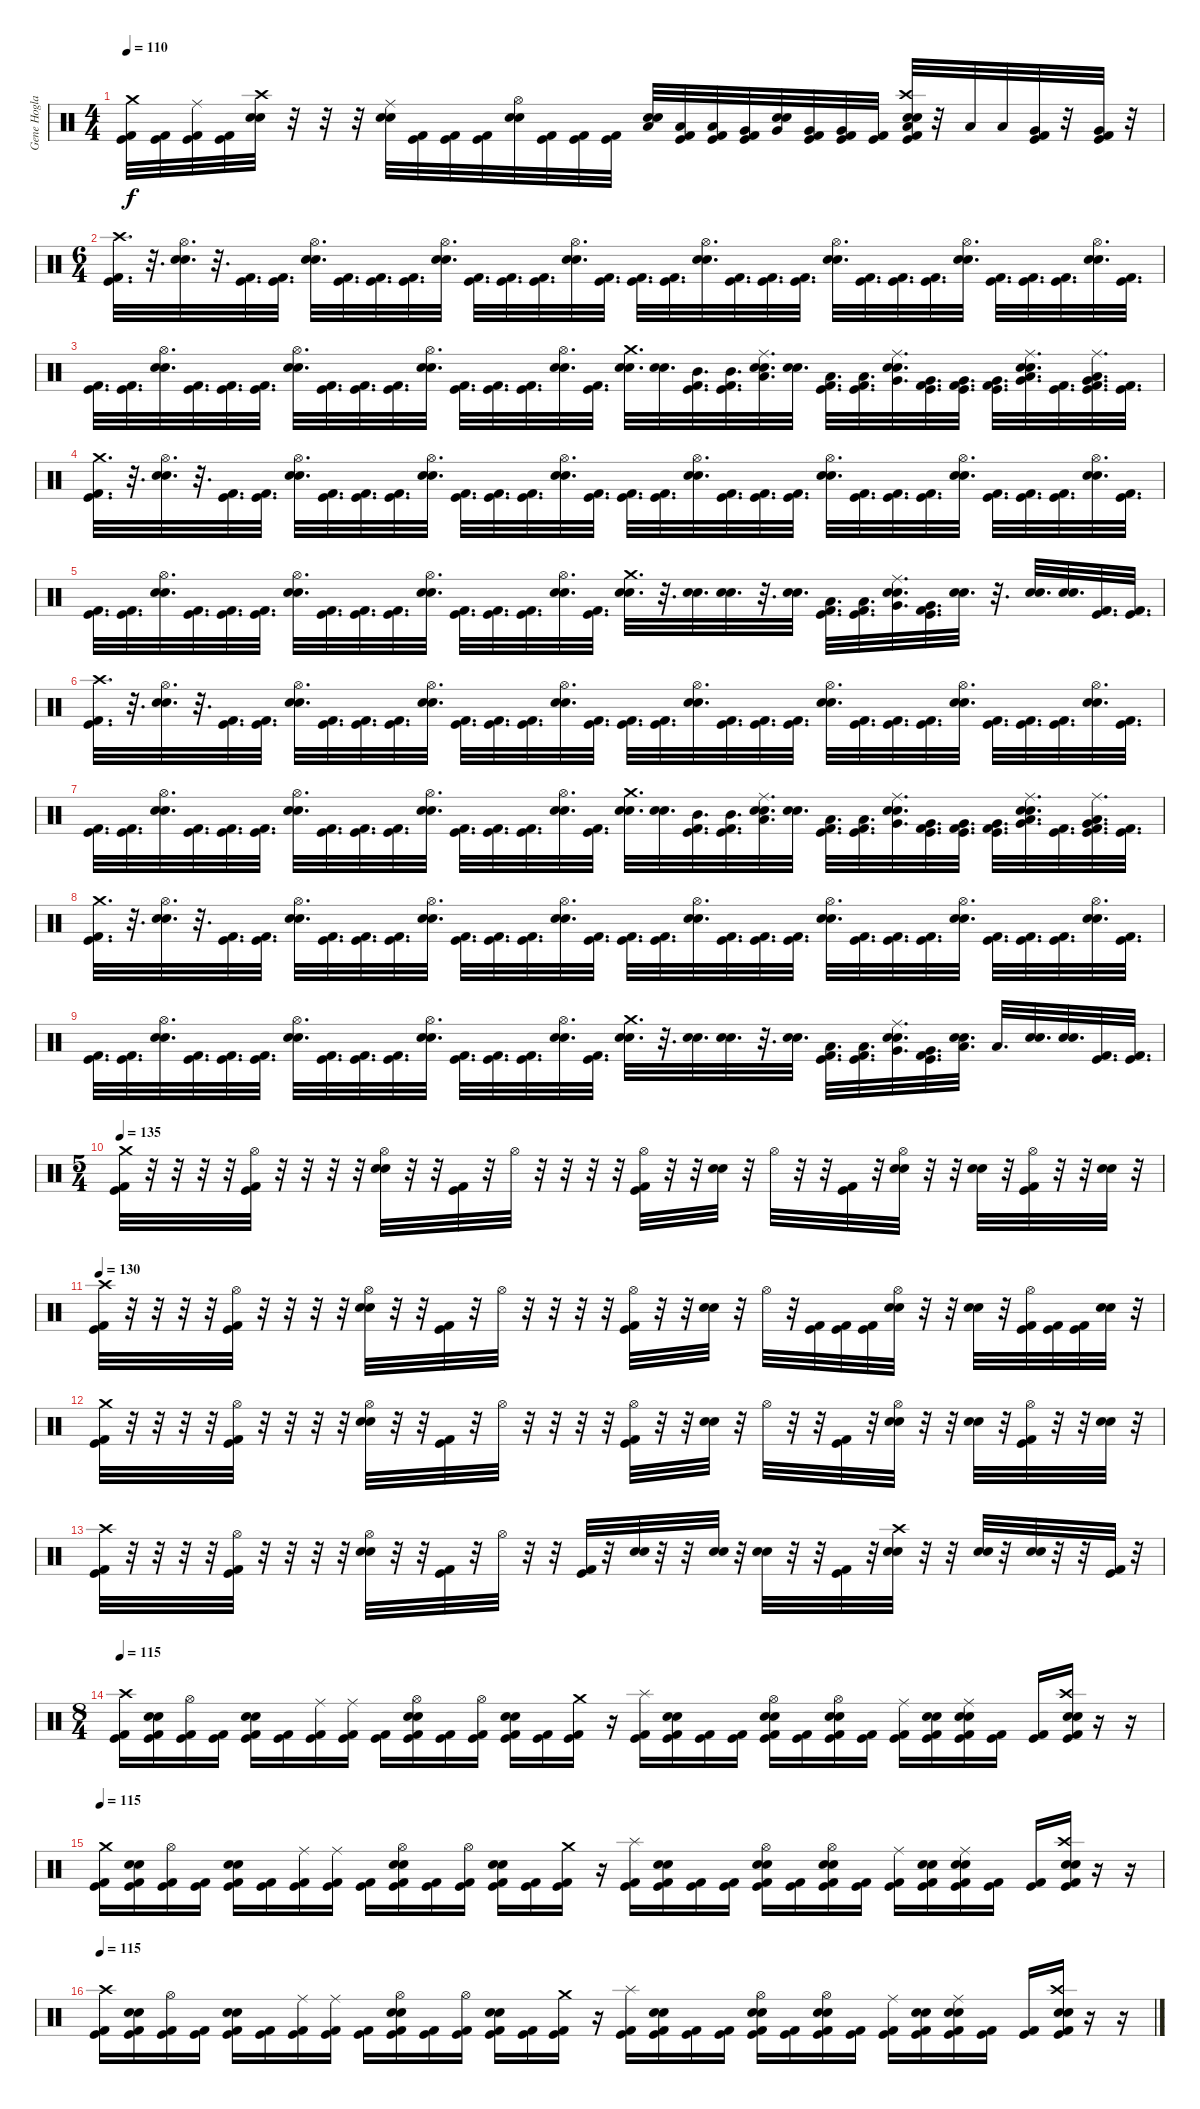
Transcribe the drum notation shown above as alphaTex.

\track ("Gene Hoglan" "Gene Hogla") {instrument percussion}
\staff {score}
\articulation defaults
\ts (4 4)
\tempo 110
\clef neutral
\ks c
("Crash medium (hit)" "Kick (hit) 2" "Kick (hit)").32{dy f} ("Kick (hit) 2" "Kick (hit)").32 ("Ride (middle)" "Kick (hit) 2" "Kick (hit)").32 ("Kick (hit) 2" "Kick (hit)").32 ("Crash high (hit)" "Snare (hit) 2" "Electric Snare (hit)").32 r.32 r.32 r.32 ("Ride (middle)" "Snare (hit) 2" "Electric Snare (hit)").32 ("Kick (hit) 2" "Kick (hit)").32 ("Kick (hit) 2" "Kick (hit)").32 ("Kick (hit) 2" "Kick (hit)").32 ("Hi-Hat (open)" "Snare (hit) 2" "Electric Snare (hit)").32 ("Kick (hit) 2" "Kick (hit)").32 ("Kick (hit) 2" "Kick (hit)").32 ("Kick (hit) 2" "Kick (hit)").32 ("Low Tom (hit)" "Snare (hit) 2" "Electric Snare (hit)").32 ("Low Tom (hit)" "Kick (hit) 2" "Kick (hit)").32 ("Low Tom (hit)" "Kick (hit) 2" "Kick (hit)").32 ("Very Low Tom (hit)" "Kick (hit) 2" "Kick (hit)").32 ("Very Low Tom (hit)" "Snare (hit) 2" "Electric Snare (hit)").32 ("Very Low Tom (hit)" "Kick (hit) 2" "Kick (hit)").32 ("Very Low Tom (hit)" "Kick (hit) 2" "Kick (hit)").32 ("Kick (hit) 2" "Kick (hit)").32 ("Kick (hit)" "Crash high (hit)" "Low Floor Tom (hit)" "Snare (hit) 2" "Electric Snare (hit)" "Kick (hit) 2").32 r.32 "Low Tom (hit)".32 "Low Tom (hit)".32 ("Very Low Tom (hit)" "Kick (hit)" "Kick (hit) 2").32 r.32 ("Very Low Tom (hit)" "Kick (hit)" "Kick (hit) 2").32 r.32 |
\ts (6 4)
("Crash high (hit)" "Kick (hit) 2" "Kick (hit)").32{d} r.32{d} ("Hi-Hat (open)" "Snare (hit) 2" "Electric Snare (hit)").32{d} r.32{d} ("Kick (hit) 2" "Kick (hit)").32{d} ("Kick (hit) 2" "Kick (hit)").32{d} ("Hi-Hat (open)" "Snare (hit) 2" "Electric Snare (hit)").32{d} ("Kick (hit) 2" "Kick (hit)").32{d} ("Kick (hit) 2" "Kick (hit)").32{d} ("Kick (hit) 2" "Kick (hit)").32{d} ("Hi-Hat (open)" "Snare (hit) 2" "Electric Snare (hit)").32{d} ("Kick (hit) 2" "Kick (hit)").32{d} ("Kick (hit) 2" "Kick (hit)").32{d} ("Kick (hit) 2" "Kick (hit)").32{d} ("Hi-Hat (open)" "Snare (hit) 2" "Electric Snare (hit)").32{d} ("Kick (hit) 2" "Kick (hit)").32{d} ("Kick (hit) 2" "Kick (hit)").32{d} ("Kick (hit) 2" "Kick (hit)").32{d} ("Hi-Hat (open)" "Snare (hit) 2" "Electric Snare (hit)").32{d} ("Kick (hit) 2" "Kick (hit)").32{d} ("Kick (hit) 2" "Kick (hit)").32{d} ("Kick (hit) 2" "Kick (hit)").32{d} ("Hi-Hat (open)" "Snare (hit) 2" "Electric Snare (hit)").32{d} ("Kick (hit) 2" "Kick (hit)").32{d} ("Kick (hit) 2" "Kick (hit)").32{d} ("Kick (hit) 2" "Kick (hit)").32{d} ("Hi-Hat (open)" "Snare (hit) 2" "Electric Snare (hit)").32{d} ("Kick (hit) 2" "Kick (hit)").32{d} ("Kick (hit) 2" "Kick (hit)").32{d} ("Kick (hit) 2" "Kick (hit)").32{d} ("Hi-Hat (open)" "Snare (hit) 2" "Electric Snare (hit)").32{d} ("Kick (hit) 2" "Kick (hit)").32{d} |
("Kick (hit) 2" "Kick (hit)").32{d} ("Kick (hit) 2" "Kick (hit)").32{d} ("Hi-Hat (open)" "Snare (hit) 2" "Electric Snare (hit)").32{d} ("Kick (hit) 2" "Kick (hit)").32{d} ("Kick (hit) 2" "Kick (hit)").32{d} ("Kick (hit) 2" "Kick (hit)").32{d} ("Hi-Hat (open)" "Snare (hit) 2" "Electric Snare (hit)").32{d} ("Kick (hit) 2" "Kick (hit)").32{d} ("Kick (hit) 2" "Kick (hit)").32{d} ("Kick (hit) 2" "Kick (hit)").32{d} ("Hi-Hat (open)" "Snare (hit) 2" "Electric Snare (hit)").32{d} ("Kick (hit) 2" "Kick (hit)").32{d} ("Kick (hit) 2" "Kick (hit)").32{d} ("Kick (hit) 2" "Kick (hit)").32{d} ("Hi-Hat (open)" "Snare (hit) 2" "Electric Snare (hit)").32{d} ("Kick (hit) 2" "Kick (hit)").32{d} ("Crash medium (hit)" "Snare (hit) 2" "Electric Snare (hit)").32{d} ("Snare (hit) 2" "Electric Snare (hit)").32{d} ("Mid Tom (hit)" "Kick (hit)" "Kick (hit) 2").32{d} ("Mid Tom (hit)" "Kick (hit) 2" "Kick (hit)").32{d} ("Ride (middle)" "Low Tom (hit)" "Snare (hit) 2" "Electric Snare (hit)").32{d} ("Snare (hit) 2" "Electric Snare (hit)").32{d} ("Low Tom (hit)" "Kick (hit) 2" "Kick (hit)").32{d} ("Low Tom (hit)" "Kick (hit) 2" "Kick (hit)").32{d} ("Ride (middle)" "Very Low Tom (hit)" "Snare (hit) 2" "Electric Snare (hit)").32{d} ("Very Low Tom (hit)" "Kick (hit) 2" "Kick (hit)").32{d} ("Very Low Tom (hit)" "Kick (hit) 2" "Kick (hit)").32{d} ("Very Low Tom (hit)" "Kick (hit) 2" "Kick (hit)").32{d} ("Ride (middle)" "Very Low Tom (hit)" "Low Floor Tom (hit)" "Snare (hit) 2" "Electric Snare (hit)").32{d} ("Kick (hit) 2" "Kick (hit)").32{d} ("Ride (middle)" "Very Low Tom (hit)" "Low Floor Tom (hit)" "Kick (hit) 2" "Kick (hit)").32{d} ("Kick (hit) 2" "Kick (hit)").32{d} |
("Crash medium (hit)" "Kick (hit) 2" "Kick (hit)").32{d} r.32{d} ("Hi-Hat (open)" "Snare (hit) 2" "Electric Snare (hit)").32{d} r.32{d} ("Kick (hit) 2" "Kick (hit)").32{d} ("Kick (hit) 2" "Kick (hit)").32{d} ("Hi-Hat (open)" "Snare (hit) 2" "Electric Snare (hit)").32{d} ("Kick (hit) 2" "Kick (hit)").32{d} ("Kick (hit) 2" "Kick (hit)").32{d} ("Kick (hit) 2" "Kick (hit)").32{d} ("Hi-Hat (open)" "Snare (hit) 2" "Electric Snare (hit)").32{d} ("Kick (hit) 2" "Kick (hit)").32{d} ("Kick (hit) 2" "Kick (hit)").32{d} ("Kick (hit) 2" "Kick (hit)").32{d} ("Hi-Hat (open)" "Snare (hit) 2" "Electric Snare (hit)").32{d} ("Kick (hit) 2" "Kick (hit)").32{d} ("Kick (hit) 2" "Kick (hit)").32{d} ("Kick (hit) 2" "Kick (hit)").32{d} ("Hi-Hat (open)" "Snare (hit) 2" "Electric Snare (hit)").32{d} ("Kick (hit) 2" "Kick (hit)").32{d} ("Kick (hit) 2" "Kick (hit)").32{d} ("Kick (hit) 2" "Kick (hit)").32{d} ("Hi-Hat (open)" "Snare (hit) 2" "Electric Snare (hit)").32{d} ("Kick (hit) 2" "Kick (hit)").32{d} ("Kick (hit) 2" "Kick (hit)").32{d} ("Kick (hit) 2" "Kick (hit)").32{d} ("Hi-Hat (open)" "Snare (hit) 2" "Electric Snare (hit)").32{d} ("Kick (hit) 2" "Kick (hit)").32{d} ("Kick (hit) 2" "Kick (hit)").32{d} ("Kick (hit) 2" "Kick (hit)").32{d} ("Hi-Hat (open)" "Snare (hit) 2" "Electric Snare (hit)").32{d} ("Kick (hit) 2" "Kick (hit)").32{d} |
("Kick (hit) 2" "Kick (hit)").32{d} ("Kick (hit) 2" "Kick (hit)").32{d} ("Hi-Hat (open)" "Snare (hit) 2" "Electric Snare (hit)").32{d} ("Kick (hit) 2" "Kick (hit)").32{d} ("Kick (hit) 2" "Kick (hit)").32{d} ("Kick (hit) 2" "Kick (hit)").32{d} ("Hi-Hat (open)" "Snare (hit) 2" "Electric Snare (hit)").32{d} ("Kick (hit) 2" "Kick (hit)").32{d} ("Kick (hit) 2" "Kick (hit)").32{d} ("Kick (hit) 2" "Kick (hit)").32{d} ("Hi-Hat (open)" "Snare (hit) 2" "Electric Snare (hit)").32{d} ("Kick (hit) 2" "Kick (hit)").32{d} ("Kick (hit) 2" "Kick (hit)").32{d} ("Kick (hit) 2" "Kick (hit)").32{d} ("Hi-Hat (open)" "Snare (hit) 2" "Electric Snare (hit)").32{d} ("Kick (hit) 2" "Kick (hit)").32{d} ("Crash medium (hit)" "Snare (hit) 2" "Electric Snare (hit)").32{d} r.32{d} ("Snare (hit) 2" "Electric Snare (hit)").32{d} ("Snare (hit) 2" "Electric Snare (hit)").32{d} r.32{d} ("Snare (hit) 2" "Electric Snare (hit)").32{d} ("Low Tom (hit)" "Kick (hit) 2" "Kick (hit)").32{d} ("Low Tom (hit)" "Kick (hit) 2" "Kick (hit)").32{d} ("Ride (middle)" "Very Low Tom (hit)" "Snare (hit) 2" "Electric Snare (hit)").32{d} ("Very Low Tom (hit)" "Kick (hit) 2" "Kick (hit)").32{d} ("Snare (hit) 2" "Electric Snare (hit)").32{d} r.32{d} ("Snare (hit) 2" "Electric Snare (hit)").32{d} ("Snare (hit) 2" "Electric Snare (hit)").32{d} ("Kick (hit) 2" "Kick (hit)").32{d} ("Kick (hit) 2" "Kick (hit)").32{d} |
("Crash high (hit)" "Kick (hit) 2" "Kick (hit)").32{d} r.32{d} ("Hi-Hat (open)" "Snare (hit) 2" "Electric Snare (hit)").32{d} r.32{d} ("Kick (hit) 2" "Kick (hit)").32{d} ("Kick (hit) 2" "Kick (hit)").32{d} ("Hi-Hat (open)" "Snare (hit) 2" "Electric Snare (hit)").32{d} ("Kick (hit) 2" "Kick (hit)").32{d} ("Kick (hit) 2" "Kick (hit)").32{d} ("Kick (hit) 2" "Kick (hit)").32{d} ("Hi-Hat (open)" "Snare (hit) 2" "Electric Snare (hit)").32{d} ("Kick (hit) 2" "Kick (hit)").32{d} ("Kick (hit) 2" "Kick (hit)").32{d} ("Kick (hit) 2" "Kick (hit)").32{d} ("Hi-Hat (open)" "Snare (hit) 2" "Electric Snare (hit)").32{d} ("Kick (hit) 2" "Kick (hit)").32{d} ("Kick (hit) 2" "Kick (hit)").32{d} ("Kick (hit) 2" "Kick (hit)").32{d} ("Hi-Hat (open)" "Snare (hit) 2" "Electric Snare (hit)").32{d} ("Kick (hit) 2" "Kick (hit)").32{d} ("Kick (hit) 2" "Kick (hit)").32{d} ("Kick (hit) 2" "Kick (hit)").32{d} ("Hi-Hat (open)" "Snare (hit) 2" "Electric Snare (hit)").32{d} ("Kick (hit) 2" "Kick (hit)").32{d} ("Kick (hit) 2" "Kick (hit)").32{d} ("Kick (hit) 2" "Kick (hit)").32{d} ("Hi-Hat (open)" "Snare (hit) 2" "Electric Snare (hit)").32{d} ("Kick (hit) 2" "Kick (hit)").32{d} ("Kick (hit) 2" "Kick (hit)").32{d} ("Kick (hit) 2" "Kick (hit)").32{d} ("Hi-Hat (open)" "Snare (hit) 2" "Electric Snare (hit)").32{d} ("Kick (hit) 2" "Kick (hit)").32{d} |
("Kick (hit) 2" "Kick (hit)").32{d} ("Kick (hit) 2" "Kick (hit)").32{d} ("Hi-Hat (open)" "Snare (hit) 2" "Electric Snare (hit)").32{d} ("Kick (hit) 2" "Kick (hit)").32{d} ("Kick (hit) 2" "Kick (hit)").32{d} ("Kick (hit) 2" "Kick (hit)").32{d} ("Hi-Hat (open)" "Snare (hit) 2" "Electric Snare (hit)").32{d} ("Kick (hit) 2" "Kick (hit)").32{d} ("Kick (hit) 2" "Kick (hit)").32{d} ("Kick (hit) 2" "Kick (hit)").32{d} ("Hi-Hat (open)" "Snare (hit) 2" "Electric Snare (hit)").32{d} ("Kick (hit) 2" "Kick (hit)").32{d} ("Kick (hit) 2" "Kick (hit)").32{d} ("Kick (hit) 2" "Kick (hit)").32{d} ("Hi-Hat (open)" "Snare (hit) 2" "Electric Snare (hit)").32{d} ("Kick (hit) 2" "Kick (hit)").32{d} ("Crash medium (hit)" "Snare (hit) 2" "Electric Snare (hit)").32{d} ("Snare (hit) 2" "Electric Snare (hit)").32{d} ("Mid Tom (hit)" "Kick (hit)" "Kick (hit) 2").32{d} ("Mid Tom (hit)" "Kick (hit) 2" "Kick (hit)").32{d} ("Ride (middle)" "Low Tom (hit)" "Snare (hit) 2" "Electric Snare (hit)").32{d} ("Snare (hit) 2" "Electric Snare (hit)").32{d} ("Low Tom (hit)" "Kick (hit) 2" "Kick (hit)").32{d} ("Low Tom (hit)" "Kick (hit) 2" "Kick (hit)").32{d} ("Ride (middle)" "Very Low Tom (hit)" "Snare (hit) 2" "Electric Snare (hit)").32{d} ("Very Low Tom (hit)" "Kick (hit) 2" "Kick (hit)").32{d} ("Very Low Tom (hit)" "Kick (hit) 2" "Kick (hit)").32{d} ("Very Low Tom (hit)" "Kick (hit) 2" "Kick (hit)").32{d} ("Ride (middle)" "Very Low Tom (hit)" "Low Floor Tom (hit)" "Snare (hit) 2" "Electric Snare (hit)").32{d} ("Kick (hit) 2" "Kick (hit)").32{d} ("Ride (middle)" "Very Low Tom (hit)" "Low Floor Tom (hit)" "Kick (hit) 2" "Kick (hit)").32{d} ("Kick (hit) 2" "Kick (hit)").32{d} |
("Crash medium (hit)" "Kick (hit) 2" "Kick (hit)").32{d} r.32{d} ("Hi-Hat (open)" "Snare (hit) 2" "Electric Snare (hit)").32{d} r.32{d} ("Kick (hit) 2" "Kick (hit)").32{d} ("Kick (hit) 2" "Kick (hit)").32{d} ("Hi-Hat (open)" "Snare (hit) 2" "Electric Snare (hit)").32{d} ("Kick (hit) 2" "Kick (hit)").32{d} ("Kick (hit) 2" "Kick (hit)").32{d} ("Kick (hit) 2" "Kick (hit)").32{d} ("Hi-Hat (open)" "Snare (hit) 2" "Electric Snare (hit)").32{d} ("Kick (hit) 2" "Kick (hit)").32{d} ("Kick (hit) 2" "Kick (hit)").32{d} ("Kick (hit) 2" "Kick (hit)").32{d} ("Hi-Hat (open)" "Snare (hit) 2" "Electric Snare (hit)").32{d} ("Kick (hit) 2" "Kick (hit)").32{d} ("Kick (hit) 2" "Kick (hit)").32{d} ("Kick (hit) 2" "Kick (hit)").32{d} ("Hi-Hat (open)" "Snare (hit) 2" "Electric Snare (hit)").32{d} ("Kick (hit) 2" "Kick (hit)").32{d} ("Kick (hit) 2" "Kick (hit)").32{d} ("Kick (hit) 2" "Kick (hit)").32{d} ("Hi-Hat (open)" "Snare (hit) 2" "Electric Snare (hit)").32{d} ("Kick (hit) 2" "Kick (hit)").32{d} ("Kick (hit) 2" "Kick (hit)").32{d} ("Kick (hit) 2" "Kick (hit)").32{d} ("Hi-Hat (open)" "Snare (hit) 2" "Electric Snare (hit)").32{d} ("Kick (hit) 2" "Kick (hit)").32{d} ("Kick (hit) 2" "Kick (hit)").32{d} ("Kick (hit) 2" "Kick (hit)").32{d} ("Hi-Hat (open)" "Snare (hit) 2" "Electric Snare (hit)").32{d} ("Kick (hit) 2" "Kick (hit)").32{d} |
("Kick (hit) 2" "Kick (hit)").32{d} ("Kick (hit) 2" "Kick (hit)").32{d} ("Hi-Hat (open)" "Snare (hit) 2" "Electric Snare (hit)").32{d} ("Kick (hit) 2" "Kick (hit)").32{d} ("Kick (hit) 2" "Kick (hit)").32{d} ("Kick (hit) 2" "Kick (hit)").32{d} ("Hi-Hat (open)" "Snare (hit) 2" "Electric Snare (hit)").32{d} ("Kick (hit) 2" "Kick (hit)").32{d} ("Kick (hit) 2" "Kick (hit)").32{d} ("Kick (hit) 2" "Kick (hit)").32{d} ("Hi-Hat (open)" "Snare (hit) 2" "Electric Snare (hit)").32{d} ("Kick (hit) 2" "Kick (hit)").32{d} ("Kick (hit) 2" "Kick (hit)").32{d} ("Kick (hit) 2" "Kick (hit)").32{d} ("Hi-Hat (open)" "Snare (hit) 2" "Electric Snare (hit)").32{d} ("Kick (hit) 2" "Kick (hit)").32{d} ("Crash medium (hit)" "Snare (hit) 2" "Electric Snare (hit)").32{d} r.32{d} ("Snare (hit) 2" "Electric Snare (hit)").32{d} ("Snare (hit) 2" "Electric Snare (hit)").32{d} r.32{d} ("Snare (hit) 2" "Electric Snare (hit)").32{d} ("Low Tom (hit)" "Kick (hit) 2" "Kick (hit)").32{d} ("Low Tom (hit)" "Kick (hit) 2" "Kick (hit)").32{d} ("Ride (middle)" "Very Low Tom (hit)" "Snare (hit) 2" "Electric Snare (hit)").32{d} ("Very Low Tom (hit)" "Kick (hit) 2" "Kick (hit)").32{d} ("Low Tom (hit)" "Snare (hit) 2" "Electric Snare (hit)").32{d} "Low Tom (hit)".32{d} ("Snare (hit) 2" "Electric Snare (hit)").32{d} ("Snare (hit) 2" "Electric Snare (hit)").32{d} ("Kick (hit) 2" "Kick (hit)").32{d} ("Kick (hit) 2" "Kick (hit)").32{d} |
\ts (5 4)
\tempo 130
\tempo 135
("Crash medium (hit)" "Kick (hit)" "Kick (hit) 2").32 r.32 r.32 r.32 r.32 ("Hi-Hat (open)" "Kick (hit)" "Kick (hit) 2").32 r.32 r.32 r.32 r.32 ("Hi-Hat (open)" "Snare (hit) 2" "Electric Snare (hit)").32 r.32 r.32 ("Kick (hit)" "Kick (hit) 2").32 r.32 "Hi-Hat (open)".32 r.32 r.32 r.32 r.32 ("Hi-Hat (open)" "Kick (hit)" "Kick (hit) 2").32 r.32 r.32 ("Snare (hit) 2" "Electric Snare (hit)").32 r.32 "Hi-Hat (open)".32 r.32 r.32 ("Kick (hit)" "Kick (hit) 2").32 r.32 ("Hi-Hat (open)" "Snare (hit) 2" "Electric Snare (hit)").32 r.32 r.32 ("Snare (hit) 2" "Electric Snare (hit)").32 r.32 ("Hi-Hat (open)" "Kick (hit)" "Kick (hit) 2").32 r.32 r.32 ("Snare (hit) 2" "Electric Snare (hit)").32 r.32 |
\tempo 130
("Crash high (hit)" "Kick (hit)" "Kick (hit) 2").32 r.32 r.32 r.32 r.32 ("Hi-Hat (open)" "Kick (hit)" "Kick (hit) 2").32 r.32 r.32 r.32 r.32 ("Hi-Hat (open)" "Snare (hit) 2" "Electric Snare (hit)").32 r.32 r.32 ("Kick (hit)" "Kick (hit) 2").32 r.32 "Hi-Hat (open)".32 r.32 r.32 r.32 r.32 ("Hi-Hat (open)" "Kick (hit)" "Kick (hit) 2").32 r.32 r.32 ("Snare (hit) 2" "Electric Snare (hit)").32 r.32 "Hi-Hat (open)".32 r.32 ("Kick (hit)" "Kick (hit) 2").32 ("Kick (hit)" "Kick (hit) 2").32 ("Kick (hit)" "Kick (hit) 2").32 ("Hi-Hat (open)" "Snare (hit) 2" "Electric Snare (hit)").32 r.32 r.32 ("Snare (hit) 2" "Electric Snare (hit)").32 r.32 ("Hi-Hat (open)" "Kick (hit)" "Kick (hit) 2").32 ("Kick (hit)" "Kick (hit) 2").32 ("Kick (hit)" "Kick (hit) 2").32 ("Snare (hit) 2" "Electric Snare (hit)").32 r.32 |
("Crash medium (hit)" "Kick (hit)" "Kick (hit) 2").32 r.32 r.32 r.32 r.32 ("Hi-Hat (open)" "Kick (hit)" "Kick (hit) 2").32 r.32 r.32 r.32 r.32 ("Hi-Hat (open)" "Snare (hit) 2" "Electric Snare (hit)").32 r.32 r.32 ("Kick (hit)" "Kick (hit) 2").32 r.32 "Hi-Hat (open)".32 r.32 r.32 r.32 r.32 ("Hi-Hat (open)" "Kick (hit)" "Kick (hit) 2").32 r.32 r.32 ("Snare (hit) 2" "Electric Snare (hit)").32 r.32 "Hi-Hat (open)".32 r.32 r.32 ("Kick (hit)" "Kick (hit) 2").32 r.32 ("Hi-Hat (open)" "Snare (hit) 2" "Electric Snare (hit)").32 r.32 r.32 ("Snare (hit) 2" "Electric Snare (hit)").32 r.32 ("Hi-Hat (open)" "Kick (hit)" "Kick (hit) 2").32 r.32 r.32 ("Snare (hit) 2" "Electric Snare (hit)").32 r.32 |
("Crash high (hit)" "Kick (hit)" "Kick (hit) 2").32 r.32 r.32 r.32 r.32 ("Hi-Hat (open)" "Kick (hit)" "Kick (hit) 2").32 r.32 r.32 r.32 r.32 ("Hi-Hat (open)" "Snare (hit) 2" "Electric Snare (hit)").32 r.32 r.32 ("Kick (hit)" "Kick (hit) 2").32 r.32 "Hi-Hat (open)".32 r.32 r.32 ("Kick (hit)" "Kick (hit) 2").32 r.32 ("Snare (hit) 2" "Electric Snare (hit)").32 r.32 r.32 ("Snare (hit) 2" "Electric Snare (hit)").32 r.32 ("Snare (hit) 2" "Electric Snare (hit)").32 r.32 r.32 ("Kick (hit)" "Kick (hit) 2").32 r.32 ("Crash high (hit)" "Snare (hit) 2" "Electric Snare (hit)").32 r.32 r.32 ("Snare (hit) 2" "Electric Snare (hit)").32 r.32 ("Snare (hit) 2" "Electric Snare (hit)").32 r.32 r.32 ("Kick (hit) 2" "Kick (hit)").32 r.32 |
\ts (8 4)
\tempo 115
("Crash high (hit)" "Kick (hit) 2" "Kick (hit)").16 ("Snare (hit) 2" "Electric Snare (hit)" "Kick (hit) 2" "Kick (hit)").16 ("Hi-Hat (open)" "Kick (hit) 2" "Kick (hit)").16 ("Kick (hit) 2" "Kick (hit)").16 ("Snare (hit) 2" "Electric Snare (hit)" "Kick (hit) 2" "Kick (hit)").16 ("Kick (hit) 2" "Kick (hit)").16 ("Ride (middle)" "Kick (hit) 2" "Kick (hit)").16 ("Ride (middle)" "Kick (hit) 2" "Kick (hit)").16 ("Kick (hit) 2" "Kick (hit)").16 ("Hi-Hat (open)" "Snare (hit) 2" "Electric Snare (hit)" "Kick (hit) 2" "Kick (hit)").16 ("Kick (hit) 2" "Kick (hit)").16 ("Hi-Hat (open)" "Kick (hit) 2" "Kick (hit)").16 ("Snare (hit) 2" "Electric Snare (hit)" "Kick (hit) 2" "Kick (hit)").16 ("Kick (hit) 2" "Kick (hit)").16 ("Crash medium (hit)" "Kick (hit) 2" "Kick (hit)").16 r.16 ("Splash (hit)" "Kick (hit) 2" "Kick (hit)").16 ("Snare (hit) 2" "Electric Snare (hit)" "Kick (hit) 2" "Kick (hit)").16 ("Kick (hit) 2" "Kick (hit)").16 ("Kick (hit) 2" "Kick (hit)").16 ("Hi-Hat (open)" "Snare (hit) 2" "Electric Snare (hit)" "Kick (hit) 2" "Kick (hit)").16 ("Kick (hit) 2" "Kick (hit)").16 ("Hi-Hat (open)" "Snare (hit) 2" "Electric Snare (hit)" "Kick (hit) 2" "Kick (hit)").16 ("Kick (hit) 2" "Kick (hit)").16 ("Ride (middle)" "Kick (hit) 2" "Kick (hit)").16 ("Snare (hit) 2" "Electric Snare (hit)" "Kick (hit) 2" "Kick (hit)").16 ("Ride (middle)" "Snare (hit) 2" "Electric Snare (hit)" "Kick (hit) 2" "Kick (hit)").16 ("Kick (hit) 2" "Kick (hit)").16 ("Kick (hit) 2" "Kick (hit)").16 ("Crash high (hit)" "Snare (hit) 2" "Electric Snare (hit)" "Kick (hit) 2" "Kick (hit)").16 r.16 r.16 |
\tempo 115
("Crash medium (hit)" "Kick (hit) 2" "Kick (hit)").16 ("Snare (hit) 2" "Electric Snare (hit)" "Kick (hit) 2" "Kick (hit)").16 ("Hi-Hat (open)" "Kick (hit) 2" "Kick (hit)").16 ("Kick (hit) 2" "Kick (hit)").16 ("Snare (hit) 2" "Electric Snare (hit)" "Kick (hit) 2" "Kick (hit)").16 ("Kick (hit) 2" "Kick (hit)").16 ("Ride (middle)" "Kick (hit) 2" "Kick (hit)").16 ("Ride (middle)" "Kick (hit) 2" "Kick (hit)").16 ("Kick (hit) 2" "Kick (hit)").16 ("Hi-Hat (open)" "Snare (hit) 2" "Electric Snare (hit)" "Kick (hit) 2" "Kick (hit)").16 ("Kick (hit) 2" "Kick (hit)").16 ("Hi-Hat (open)" "Kick (hit) 2" "Kick (hit)").16 ("Snare (hit) 2" "Electric Snare (hit)" "Kick (hit) 2" "Kick (hit)").16 ("Kick (hit) 2" "Kick (hit)").16 ("Crash medium (hit)" "Kick (hit) 2" "Kick (hit)").16 r.16 ("Splash (hit)" "Kick (hit) 2" "Kick (hit)").16 ("Snare (hit) 2" "Electric Snare (hit)" "Kick (hit) 2" "Kick (hit)").16 ("Kick (hit) 2" "Kick (hit)").16 ("Kick (hit) 2" "Kick (hit)").16 ("Hi-Hat (open)" "Snare (hit) 2" "Electric Snare (hit)" "Kick (hit) 2" "Kick (hit)").16 ("Kick (hit) 2" "Kick (hit)").16 ("Hi-Hat (open)" "Snare (hit) 2" "Electric Snare (hit)" "Kick (hit) 2" "Kick (hit)").16 ("Kick (hit) 2" "Kick (hit)").16 ("Ride (middle)" "Kick (hit) 2" "Kick (hit)").16 ("Snare (hit) 2" "Electric Snare (hit)" "Kick (hit) 2" "Kick (hit)").16 ("Ride (middle)" "Snare (hit) 2" "Electric Snare (hit)" "Kick (hit) 2" "Kick (hit)").16 ("Kick (hit) 2" "Kick (hit)").16 ("Kick (hit) 2" "Kick (hit)").16 ("Crash high (hit)" "Snare (hit) 2" "Electric Snare (hit)" "Kick (hit) 2" "Kick (hit)").16 r.16 r.16 |
\tempo 115
("Crash high (hit)" "Kick (hit) 2" "Kick (hit)").16 ("Snare (hit) 2" "Electric Snare (hit)" "Kick (hit) 2" "Kick (hit)").16 ("Hi-Hat (open)" "Kick (hit) 2" "Kick (hit)").16 ("Kick (hit) 2" "Kick (hit)").16 ("Snare (hit) 2" "Electric Snare (hit)" "Kick (hit) 2" "Kick (hit)").16 ("Kick (hit) 2" "Kick (hit)").16 ("Ride (middle)" "Kick (hit) 2" "Kick (hit)").16 ("Ride (middle)" "Kick (hit) 2" "Kick (hit)").16 ("Kick (hit) 2" "Kick (hit)").16 ("Hi-Hat (open)" "Snare (hit) 2" "Electric Snare (hit)" "Kick (hit) 2" "Kick (hit)").16 ("Kick (hit) 2" "Kick (hit)").16 ("Hi-Hat (open)" "Kick (hit) 2" "Kick (hit)").16 ("Snare (hit) 2" "Electric Snare (hit)" "Kick (hit) 2" "Kick (hit)").16 ("Kick (hit) 2" "Kick (hit)").16 ("Crash medium (hit)" "Kick (hit) 2" "Kick (hit)").16 r.16 ("Splash (hit)" "Kick (hit) 2" "Kick (hit)").16 ("Snare (hit) 2" "Electric Snare (hit)" "Kick (hit) 2" "Kick (hit)").16 ("Kick (hit) 2" "Kick (hit)").16 ("Kick (hit) 2" "Kick (hit)").16 ("Hi-Hat (open)" "Snare (hit) 2" "Electric Snare (hit)" "Kick (hit) 2" "Kick (hit)").16 ("Kick (hit) 2" "Kick (hit)").16 ("Hi-Hat (open)" "Snare (hit) 2" "Electric Snare (hit)" "Kick (hit) 2" "Kick (hit)").16 ("Kick (hit) 2" "Kick (hit)").16 ("Ride (middle)" "Kick (hit) 2" "Kick (hit)").16 ("Snare (hit) 2" "Electric Snare (hit)" "Kick (hit) 2" "Kick (hit)").16 ("Ride (middle)" "Snare (hit) 2" "Electric Snare (hit)" "Kick (hit) 2" "Kick (hit)").16 ("Kick (hit) 2" "Kick (hit)").16 ("Kick (hit) 2" "Kick (hit)").16 ("Crash high (hit)" "Snare (hit) 2" "Electric Snare (hit)" "Kick (hit) 2" "Kick (hit)").16 r.16 r.16
